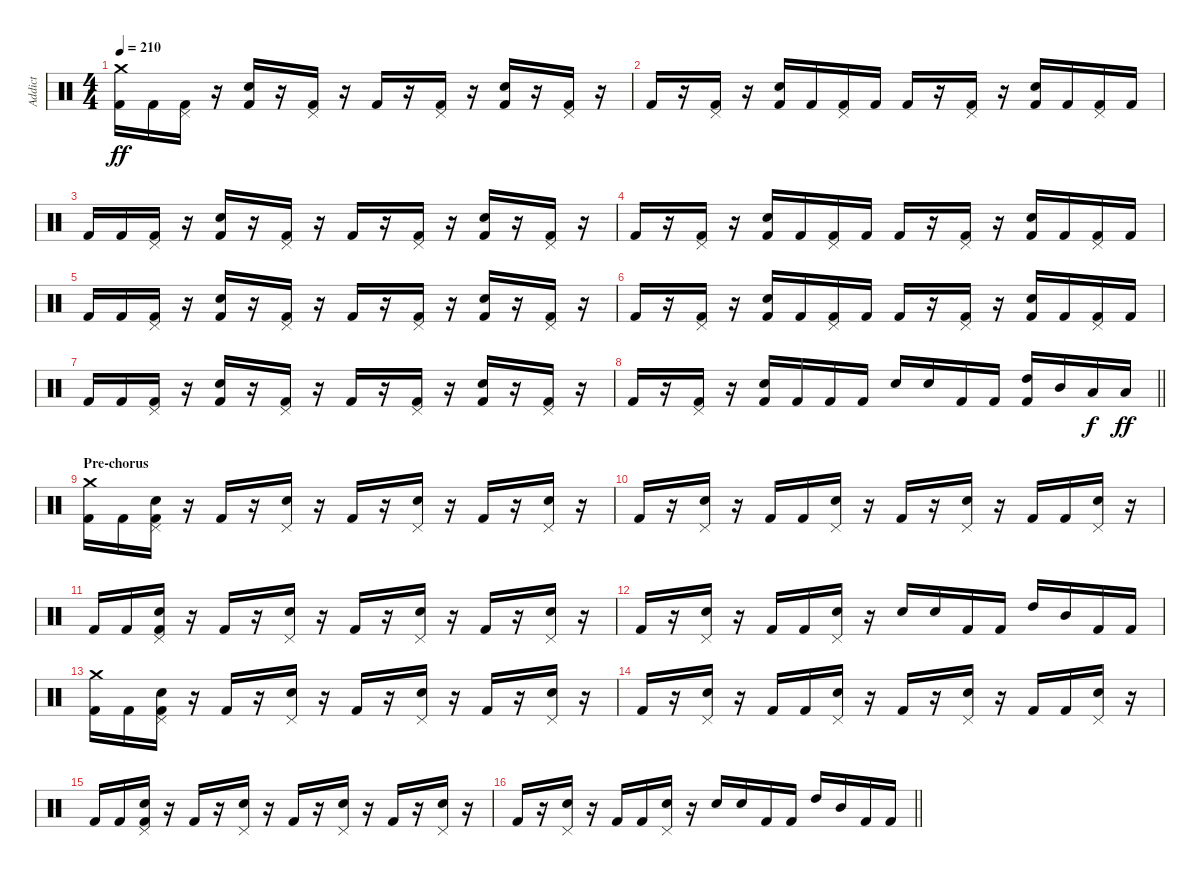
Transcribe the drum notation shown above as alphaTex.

\track ("Addict" "Addict") {instrument percussion}
\staff {score}
\articulation defaults
\ts (4 4)
\tempo 210
\clef neutral
\ks c
("Kick (hit) 2" "Crash medium (hit)").16{dy ff} "Kick (hit) 2".16 ("Kick (hit) 2" "Pedal Hi-Hat (hit)").16 r.16 ("Kick (hit) 2" "Snare (hit) 2").16 r.16 ("Kick (hit) 2" "Pedal Hi-Hat (hit)").16 r.16 "Kick (hit) 2".16 r.16 ("Kick (hit) 2" "Pedal Hi-Hat (hit)").16 r.16 ("Kick (hit) 2" "Snare (hit) 2").16 r.16 ("Kick (hit) 2" "Pedal Hi-Hat (hit)").16 r.16 |
"Kick (hit) 2".16 r.16 ("Kick (hit) 2" "Pedal Hi-Hat (hit)").16 r.16 ("Kick (hit) 2" "Snare (hit) 2").16 "Kick (hit) 2".16 ("Kick (hit) 2" "Pedal Hi-Hat (hit)").16 "Kick (hit) 2".16 "Kick (hit) 2".16 r.16 ("Kick (hit) 2" "Pedal Hi-Hat (hit)").16 r.16 ("Kick (hit) 2" "Snare (hit) 2").16 "Kick (hit) 2".16 ("Kick (hit) 2" "Pedal Hi-Hat (hit)").16 "Kick (hit) 2".16 |
"Kick (hit) 2".16 "Kick (hit) 2".16 ("Kick (hit) 2" "Pedal Hi-Hat (hit)").16 r.16 ("Kick (hit) 2" "Snare (hit) 2").16 r.16 ("Kick (hit) 2" "Pedal Hi-Hat (hit)").16 r.16 "Kick (hit) 2".16 r.16 ("Kick (hit) 2" "Pedal Hi-Hat (hit)").16 r.16 ("Kick (hit) 2" "Snare (hit) 2").16 r.16 ("Kick (hit) 2" "Pedal Hi-Hat (hit)").16 r.16 |
"Kick (hit) 2".16 r.16 ("Kick (hit) 2" "Pedal Hi-Hat (hit)").16 r.16 ("Kick (hit) 2" "Snare (hit) 2").16 "Kick (hit) 2".16 ("Kick (hit) 2" "Pedal Hi-Hat (hit)").16 "Kick (hit) 2".16 "Kick (hit) 2".16 r.16 ("Kick (hit) 2" "Pedal Hi-Hat (hit)").16 r.16 ("Kick (hit) 2" "Snare (hit) 2").16 "Kick (hit) 2".16 ("Kick (hit) 2" "Pedal Hi-Hat (hit)").16 "Kick (hit) 2".16 |
"Kick (hit) 2".16 "Kick (hit) 2".16 ("Kick (hit) 2" "Pedal Hi-Hat (hit)").16 r.16 ("Kick (hit) 2" "Snare (hit) 2").16 r.16 ("Kick (hit) 2" "Pedal Hi-Hat (hit)").16 r.16 "Kick (hit) 2".16 r.16 ("Kick (hit) 2" "Pedal Hi-Hat (hit)").16 r.16 ("Kick (hit) 2" "Snare (hit) 2").16 r.16 ("Kick (hit) 2" "Pedal Hi-Hat (hit)").16 r.16 |
"Kick (hit) 2".16 r.16 ("Kick (hit) 2" "Pedal Hi-Hat (hit)").16 r.16 ("Kick (hit) 2" "Snare (hit) 2").16 "Kick (hit) 2".16 ("Kick (hit) 2" "Pedal Hi-Hat (hit)").16 "Kick (hit) 2".16 "Kick (hit) 2".16 r.16 ("Kick (hit) 2" "Pedal Hi-Hat (hit)").16 r.16 ("Kick (hit) 2" "Snare (hit) 2").16 "Kick (hit) 2".16 ("Kick (hit) 2" "Pedal Hi-Hat (hit)").16 "Kick (hit) 2".16 |
"Kick (hit) 2".16 "Kick (hit) 2".16 ("Kick (hit) 2" "Pedal Hi-Hat (hit)").16 r.16 ("Kick (hit) 2" "Snare (hit) 2").16 r.16 ("Kick (hit) 2" "Pedal Hi-Hat (hit)").16 r.16 "Kick (hit) 2".16 r.16 ("Kick (hit) 2" "Pedal Hi-Hat (hit)").16 r.16 ("Kick (hit) 2" "Snare (hit) 2").16 r.16 ("Kick (hit) 2" "Pedal Hi-Hat (hit)").16 r.16 |
\barLineRight lightlight "Kick (hit) 2".16
r.16 ("Kick (hit) 2" "Pedal Hi-Hat (hit)").16 r.16 ("Kick (hit) 2" "Snare (hit) 2").16 "Kick (hit) 2".16 "Kick (hit) 2".16 "Kick (hit) 2".16 "Snare (hit) 2".16 "Snare (hit) 2".16 "Kick (hit) 2".16 "Kick (hit) 2".16 ("Kick (hit) 2" "High Tom (hit)").16 "Mid Tom (hit)".16 "Low Tom (hit)".16{dy f} "Low Tom (hit)".16{dy ff} |
\section ("" "Pre-chorus")
("Kick (hit) 2" "Crash medium (hit)").16 "Kick (hit) 2".16 ("Kick (hit) 2" "Snare (hit) 2" "Pedal Hi-Hat (hit)").16 r.16 "Kick (hit) 2".16 r.16 ("Snare (hit) 2" "Pedal Hi-Hat (hit)").16 r.16 "Kick (hit) 2".16 r.16 ("Snare (hit) 2" "Pedal Hi-Hat (hit)").16 r.16 "Kick (hit) 2".16 r.16 ("Snare (hit) 2" "Pedal Hi-Hat (hit)").16 r.16 |
"Kick (hit) 2".16 r.16 ("Snare (hit) 2" "Pedal Hi-Hat (hit)").16 r.16 "Kick (hit) 2".16 "Kick (hit) 2".16 ("Snare (hit) 2" "Pedal Hi-Hat (hit)").16 r.16 "Kick (hit) 2".16 r.16 ("Snare (hit) 2" "Pedal Hi-Hat (hit)").16 r.16 "Kick (hit) 2".16 "Kick (hit) 2".16 ("Snare (hit) 2" "Pedal Hi-Hat (hit)").16 r.16 |
"Kick (hit) 2".16 "Kick (hit) 2".16 ("Kick (hit) 2" "Snare (hit) 2" "Pedal Hi-Hat (hit)").16 r.16 "Kick (hit) 2".16 r.16 ("Snare (hit) 2" "Pedal Hi-Hat (hit)").16 r.16 "Kick (hit) 2".16 r.16 ("Snare (hit) 2" "Pedal Hi-Hat (hit)").16 r.16 "Kick (hit) 2".16 r.16 ("Snare (hit) 2" "Pedal Hi-Hat (hit)").16 r.16 |
"Kick (hit) 2".16 r.16 ("Snare (hit) 2" "Pedal Hi-Hat (hit)").16 r.16 "Kick (hit) 2".16 "Kick (hit) 2".16 ("Snare (hit) 2" "Pedal Hi-Hat (hit)").16 r.16 "Snare (hit) 2".16 "Snare (hit) 2".16 "Kick (hit) 2".16 "Kick (hit) 2".16 "High Tom (hit)".16 "Mid Tom (hit)".16 "Kick (hit) 2".16 "Kick (hit) 2".16 |
("Kick (hit) 2" "Crash medium (hit)").16 "Kick (hit) 2".16 ("Kick (hit) 2" "Snare (hit) 2" "Pedal Hi-Hat (hit)").16 r.16 "Kick (hit) 2".16 r.16 ("Snare (hit) 2" "Pedal Hi-Hat (hit)").16 r.16 "Kick (hit) 2".16 r.16 ("Snare (hit) 2" "Pedal Hi-Hat (hit)").16 r.16 "Kick (hit) 2".16 r.16 ("Snare (hit) 2" "Pedal Hi-Hat (hit)").16 r.16 |
"Kick (hit) 2".16 r.16 ("Snare (hit) 2" "Pedal Hi-Hat (hit)").16 r.16 "Kick (hit) 2".16 "Kick (hit) 2".16 ("Snare (hit) 2" "Pedal Hi-Hat (hit)").16 r.16 "Kick (hit) 2".16 r.16 ("Snare (hit) 2" "Pedal Hi-Hat (hit)").16 r.16 "Kick (hit) 2".16 "Kick (hit) 2".16 ("Snare (hit) 2" "Pedal Hi-Hat (hit)").16 r.16 |
"Kick (hit) 2".16 "Kick (hit) 2".16 ("Kick (hit) 2" "Snare (hit) 2" "Pedal Hi-Hat (hit)").16 r.16 "Kick (hit) 2".16 r.16 ("Snare (hit) 2" "Pedal Hi-Hat (hit)").16 r.16 "Kick (hit) 2".16 r.16 ("Snare (hit) 2" "Pedal Hi-Hat (hit)").16 r.16 "Kick (hit) 2".16 r.16 ("Snare (hit) 2" "Pedal Hi-Hat (hit)").16 r.16 |
\barLineRight lightlight "Kick (hit) 2".16
r.16 ("Snare (hit) 2" "Pedal Hi-Hat (hit)").16 r.16 "Kick (hit) 2".16 "Kick (hit) 2".16 ("Snare (hit) 2" "Pedal Hi-Hat (hit)").16 r.16 "Snare (hit) 2".16 "Snare (hit) 2".16 "Kick (hit) 2".16 "Kick (hit) 2".16 "High Tom (hit)".16 "Mid Tom (hit)".16 "Kick (hit) 2".16 "Kick (hit) 2".16
